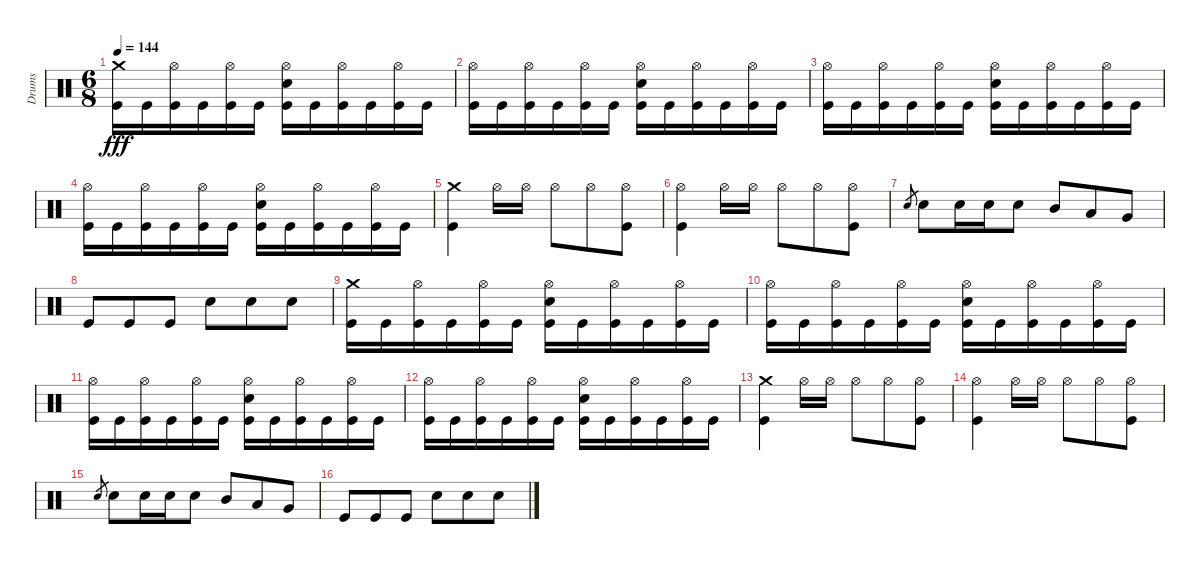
\track ("Drums" "Drums") {instrument percussion}
\staff {score}
\articulation defaults
\ts (6 8)
\tempo 144
\clef neutral
\ks c
("Crash medium (hit)" "Kick (hit)").16{dy fff} "Kick (hit)".16 ("Hi-Hat (open)" "Kick (hit)").16 "Kick (hit)".16 ("Hi-Hat (open)" "Kick (hit)").16 "Kick (hit)".16 ("Hi-Hat (open)" "Snare (hit) 2" "Kick (hit)").16 "Kick (hit)".16 ("Hi-Hat (open)" "Kick (hit)").16 "Kick (hit)".16 ("Hi-Hat (open)" "Kick (hit)").16 "Kick (hit)".16 |
("Hi-Hat (open)" "Kick (hit)").16 "Kick (hit)".16 ("Hi-Hat (open)" "Kick (hit)").16 "Kick (hit)".16 ("Hi-Hat (open)" "Kick (hit)").16 "Kick (hit)".16 ("Hi-Hat (open)" "Snare (hit) 2" "Kick (hit)").16 "Kick (hit)".16 ("Hi-Hat (open)" "Kick (hit)").16 "Kick (hit)".16 ("Hi-Hat (open)" "Kick (hit)").16 "Kick (hit)".16 |
("Hi-Hat (open)" "Kick (hit)").16 "Kick (hit)".16 ("Hi-Hat (open)" "Kick (hit)").16 "Kick (hit)".16 ("Hi-Hat (open)" "Kick (hit)").16 "Kick (hit)".16 ("Hi-Hat (open)" "Snare (hit) 2" "Kick (hit)").16 "Kick (hit)".16 ("Hi-Hat (open)" "Kick (hit)").16 "Kick (hit)".16 ("Hi-Hat (open)" "Kick (hit)").16 "Kick (hit)".16 |
("Hi-Hat (open)" "Kick (hit)").16 "Kick (hit)".16 ("Hi-Hat (open)" "Kick (hit)").16 "Kick (hit)".16 ("Hi-Hat (open)" "Kick (hit)").16 "Kick (hit)".16 ("Hi-Hat (open)" "Snare (hit) 2" "Kick (hit)").16 "Kick (hit)".16 ("Hi-Hat (open)" "Kick (hit)").16 "Kick (hit)".16 ("Hi-Hat (open)" "Kick (hit)").16 "Kick (hit)".16 |
("Crash medium (hit)" "Kick (hit)").4 "Hi-Hat (open)".16 "Hi-Hat (open)".16 "Hi-Hat (open)".8 "Hi-Hat (open)".8 ("Hi-Hat (open)" "Kick (hit)").8 |
("Hi-Hat (open)" "Kick (hit)").4 "Hi-Hat (open)".16 "Hi-Hat (open)".16 "Hi-Hat (open)".8 "Hi-Hat (open)".8 ("Hi-Hat (open)" "Kick (hit)").8 |
"Snare (hit) 2".8{gr} "Snare (hit) 2".8 "Snare (hit) 2".16 "Snare (hit) 2".16 "Snare (hit) 2".8 "Mid Tom (hit)".8 "Low Tom (hit)".8 "Very Low Tom (hit)".8 |
"Kick (hit)".8 "Kick (hit)".8 "Kick (hit)".8 "Snare (hit) 2".8 "Snare (hit) 2".8 "Snare (hit) 2".8 |
("Crash medium (hit)" "Kick (hit)").16 "Kick (hit)".16 ("Hi-Hat (open)" "Kick (hit)").16 "Kick (hit)".16 ("Hi-Hat (open)" "Kick (hit)").16 "Kick (hit)".16 ("Hi-Hat (open)" "Snare (hit) 2" "Kick (hit)").16 "Kick (hit)".16 ("Hi-Hat (open)" "Kick (hit)").16 "Kick (hit)".16 ("Hi-Hat (open)" "Kick (hit)").16 "Kick (hit)".16 |
("Hi-Hat (open)" "Kick (hit)").16 "Kick (hit)".16 ("Hi-Hat (open)" "Kick (hit)").16 "Kick (hit)".16 ("Hi-Hat (open)" "Kick (hit)").16 "Kick (hit)".16 ("Hi-Hat (open)" "Snare (hit) 2" "Kick (hit)").16 "Kick (hit)".16 ("Hi-Hat (open)" "Kick (hit)").16 "Kick (hit)".16 ("Hi-Hat (open)" "Kick (hit)").16 "Kick (hit)".16 |
("Hi-Hat (open)" "Kick (hit)").16 "Kick (hit)".16 ("Hi-Hat (open)" "Kick (hit)").16 "Kick (hit)".16 ("Hi-Hat (open)" "Kick (hit)").16 "Kick (hit)".16 ("Hi-Hat (open)" "Snare (hit) 2" "Kick (hit)").16 "Kick (hit)".16 ("Hi-Hat (open)" "Kick (hit)").16 "Kick (hit)".16 ("Hi-Hat (open)" "Kick (hit)").16 "Kick (hit)".16 |
("Hi-Hat (open)" "Kick (hit)").16 "Kick (hit)".16 ("Hi-Hat (open)" "Kick (hit)").16 "Kick (hit)".16 ("Hi-Hat (open)" "Kick (hit)").16 "Kick (hit)".16 ("Hi-Hat (open)" "Snare (hit) 2" "Kick (hit)").16 "Kick (hit)".16 ("Hi-Hat (open)" "Kick (hit)").16 "Kick (hit)".16 ("Hi-Hat (open)" "Kick (hit)").16 "Kick (hit)".16 |
("Crash medium (hit)" "Kick (hit)").4 "Hi-Hat (open)".16 "Hi-Hat (open)".16 "Hi-Hat (open)".8 "Hi-Hat (open)".8 ("Hi-Hat (open)" "Kick (hit)").8 |
("Hi-Hat (open)" "Kick (hit)").4 "Hi-Hat (open)".16 "Hi-Hat (open)".16 "Hi-Hat (open)".8 "Hi-Hat (open)".8 ("Hi-Hat (open)" "Kick (hit)").8 |
"Snare (hit) 2".8{gr} "Snare (hit) 2".8 "Snare (hit) 2".16 "Snare (hit) 2".16 "Snare (hit) 2".8 "Mid Tom (hit)".8 "Low Tom (hit)".8 "Very Low Tom (hit)".8 |
"Kick (hit)".8 "Kick (hit)".8 "Kick (hit)".8 "Snare (hit) 2".8 "Snare (hit) 2".8 "Snare (hit) 2".8
